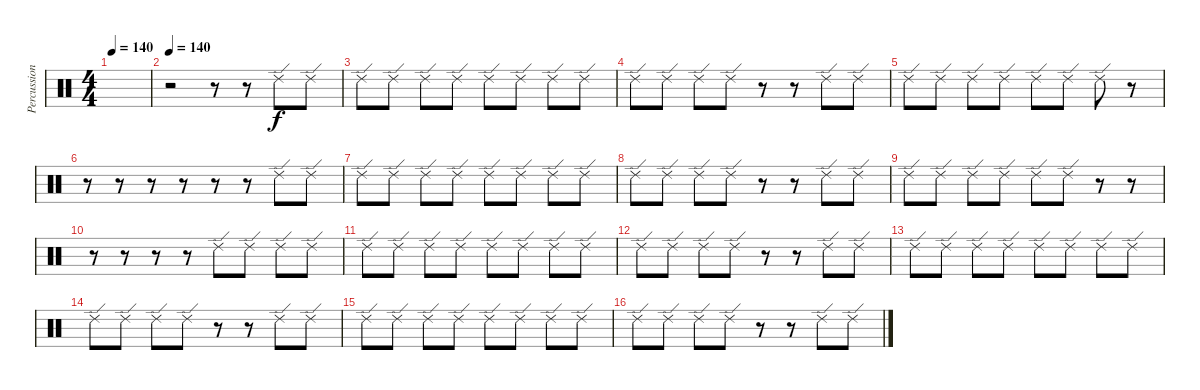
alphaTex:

\track ("Percussion" "Percussion") {instrument percussion}
\staff {score}
\articulation defaults
\ts (4 4)
\tempo 140
\clef neutral
\ks c
|
\tempo 140
r.2 r.8 r.8 "Ride (edge) 2".8 "Ride (edge) 2".8 |
"Ride (edge) 2".8 "Ride (edge) 2".8 "Ride (edge) 2".8 "Ride (edge) 2".8 "Ride (edge) 2".8 "Ride (edge) 2".8 "Ride (edge) 2".8 "Ride (edge) 2".8 |
"Ride (edge) 2".8 "Ride (edge) 2".8 "Ride (edge) 2".8 "Ride (edge) 2".8 r.8 r.8 "Ride (edge) 2".8 "Ride (edge) 2".8 |
"Ride (edge) 2".8 "Ride (edge) 2".8 "Ride (edge) 2".8 "Ride (edge) 2".8 "Ride (edge) 2".8 "Ride (edge) 2".8 "Ride (edge) 2".8 r.8 |
r.8 r.8 r.8 r.8 r.8 r.8 "Ride (edge) 2".8 "Ride (edge) 2".8 |
"Ride (edge) 2".8 "Ride (edge) 2".8 "Ride (edge) 2".8 "Ride (edge) 2".8 "Ride (edge) 2".8 "Ride (edge) 2".8 "Ride (edge) 2".8 "Ride (edge) 2".8 |
"Ride (edge) 2".8 "Ride (edge) 2".8 "Ride (edge) 2".8 "Ride (edge) 2".8 r.8 r.8 "Ride (edge) 2".8 "Ride (edge) 2".8 |
"Ride (edge) 2".8 "Ride (edge) 2".8 "Ride (edge) 2".8 "Ride (edge) 2".8 "Ride (edge) 2".8 "Ride (edge) 2".8 r.8 r.8 |
r.8 r.8 r.8 r.8 "Ride (edge) 2".8 "Ride (edge) 2".8 "Ride (edge) 2".8 "Ride (edge) 2".8 |
"Ride (edge) 2".8 "Ride (edge) 2".8 "Ride (edge) 2".8 "Ride (edge) 2".8 "Ride (edge) 2".8 "Ride (edge) 2".8 "Ride (edge) 2".8 "Ride (edge) 2".8 |
"Ride (edge) 2".8 "Ride (edge) 2".8 "Ride (edge) 2".8 "Ride (edge) 2".8 r.8 r.8 "Ride (edge) 2".8 "Ride (edge) 2".8 |
"Ride (edge) 2".8 "Ride (edge) 2".8 "Ride (edge) 2".8 "Ride (edge) 2".8 "Ride (edge) 2".8 "Ride (edge) 2".8 "Ride (edge) 2".8 "Ride (edge) 2".8 |
"Ride (edge) 2".8 "Ride (edge) 2".8 "Ride (edge) 2".8 "Ride (edge) 2".8 r.8 r.8 "Ride (edge) 2".8 "Ride (edge) 2".8 |
"Ride (edge) 2".8 "Ride (edge) 2".8 "Ride (edge) 2".8 "Ride (edge) 2".8 "Ride (edge) 2".8 "Ride (edge) 2".8 "Ride (edge) 2".8 "Ride (edge) 2".8 |
"Ride (edge) 2".8 "Ride (edge) 2".8 "Ride (edge) 2".8 "Ride (edge) 2".8 r.8 r.8 "Ride (edge) 2".8 "Ride (edge) 2".8
